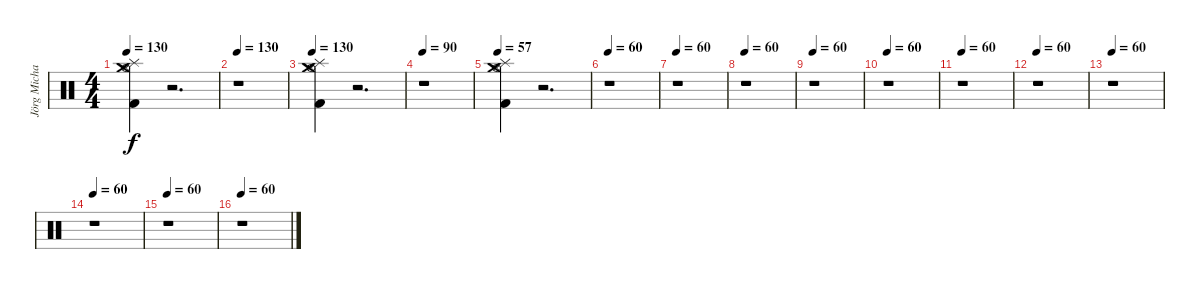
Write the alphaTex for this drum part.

\track ("Jörg Michael (Drums)" "Jörg Micha") {instrument percussion}
\staff {score}
\articulation defaults
\ts (4 4)
\tempo 130
\clef neutral
\ks c
("Crash medium (hit)" "Splash (hit)" "Hi-Hat (open)" "Kick (hit) 2").4{dy f} r.2{d} |
\tempo 130
r.1 |
\tempo 130
("Crash medium (hit)" "Splash (hit)" "Hi-Hat (open)" "Kick (hit) 2").4 r.2{d} |
\tempo 130
\tempo 90
r.1 |
\tempo 130
\tempo 57
("Crash medium (hit)" "Splash (hit)" "Hi-Hat (open)" "Kick (hit) 2").4 r.2{d} |
\tempo 130
\tempo 60
r.1 |
\tempo 60
r.1 |
\tempo 60
r.1 |
\tempo 60
r.1 |
\tempo 60
r.1 |
\tempo 60
r.1 |
\tempo 60
r.1 |
\tempo 60
r.1 |
\tempo 60
r.1 |
\tempo 60
r.1 |
\tempo 60
r.1
